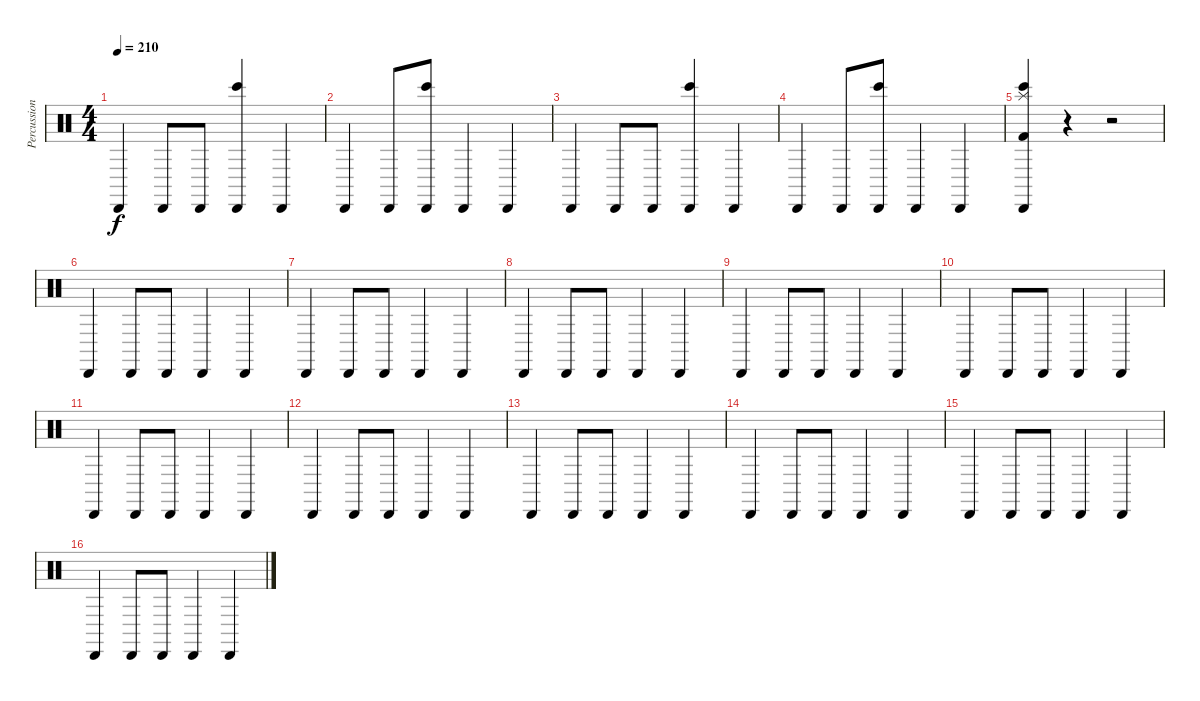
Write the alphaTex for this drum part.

\track ("Percussions" "Percussion") {instrument percussion}
\staff {score}
\articulation defaults
\ts (4 4)
\tempo 210
\clef neutral
\ks c "Cabasa (hit)".4{dy f} "Cabasa (hit)".8 "Cabasa (hit)".8
("Bongo High (hit)" "Cabasa (hit)").4 "Cabasa (hit)".4 |
"Cabasa (hit)".4 "Cabasa (hit)".8 ("Bongo High (hit)" "Cabasa (hit)").8 "Cabasa (hit)".4 "Cabasa (hit)".4 |
"Cabasa (hit)".4 "Cabasa (hit)".8 "Cabasa (hit)".8 ("Bongo High (hit)" "Cabasa (hit)").4 "Cabasa (hit)".4 |
"Cabasa (hit)".4 "Cabasa (hit)".8 ("Bongo High (hit)" "Cabasa (hit)").8 "Cabasa (hit)".4 "Cabasa (hit)".4 |
("Splash (hit)" "Bongo High (hit)" "Kick (hit) 2" "Cabasa (hit)").4 r.4 r.2 |
"Cabasa (hit)".4 "Cabasa (hit)".8 "Cabasa (hit)".8 "Cabasa (hit)".4 "Cabasa (hit)".4 |
"Cabasa (hit)".4 "Cabasa (hit)".8 "Cabasa (hit)".8 "Cabasa (hit)".4 "Cabasa (hit)".4 |
"Cabasa (hit)".4 "Cabasa (hit)".8 "Cabasa (hit)".8 "Cabasa (hit)".4 "Cabasa (hit)".4 |
"Cabasa (hit)".4 "Cabasa (hit)".8 "Cabasa (hit)".8 "Cabasa (hit)".4 "Cabasa (hit)".4 |
"Cabasa (hit)".4 "Cabasa (hit)".8 "Cabasa (hit)".8 "Cabasa (hit)".4 "Cabasa (hit)".4 |
"Cabasa (hit)".4 "Cabasa (hit)".8 "Cabasa (hit)".8 "Cabasa (hit)".4 "Cabasa (hit)".4 |
"Cabasa (hit)".4 "Cabasa (hit)".8 "Cabasa (hit)".8 "Cabasa (hit)".4 "Cabasa (hit)".4 |
"Cabasa (hit)".4 "Cabasa (hit)".8 "Cabasa (hit)".8 "Cabasa (hit)".4 "Cabasa (hit)".4 |
"Cabasa (hit)".4 "Cabasa (hit)".8 "Cabasa (hit)".8 "Cabasa (hit)".4 "Cabasa (hit)".4 |
"Cabasa (hit)".4 "Cabasa (hit)".8 "Cabasa (hit)".8 "Cabasa (hit)".4 "Cabasa (hit)".4 |
"Cabasa (hit)".4 "Cabasa (hit)".8 "Cabasa (hit)".8 "Cabasa (hit)".4 "Cabasa (hit)".4
